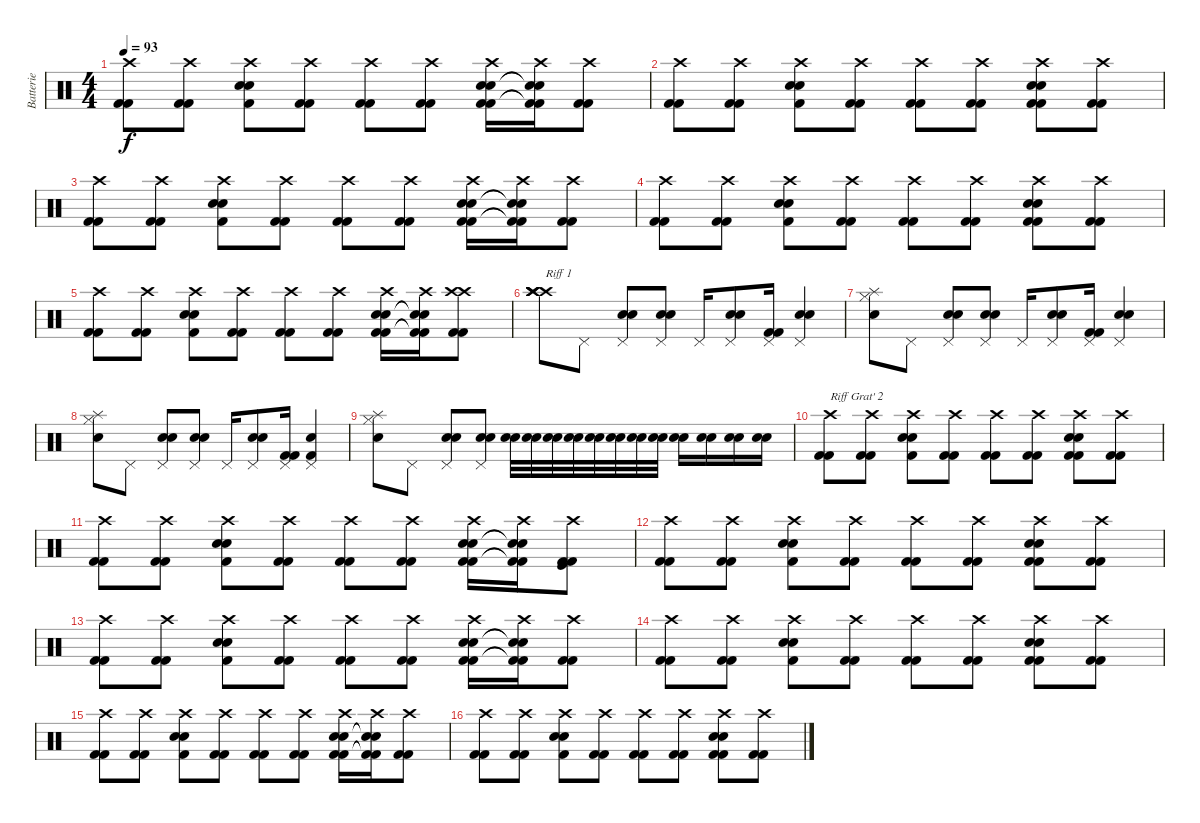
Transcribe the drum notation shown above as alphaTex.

\track ("Batterie" "Batterie") {instrument percussion}
\staff {score}
\articulation defaults
\ts (4 4)
\tempo 93
\clef neutral
\ks c
("Crash high (hit)" "Kick (hit) 2" "Kick (hit) 2").8{dy f} ("Crash high (hit)" "Kick (hit) 2" "Kick (hit) 2").8 ("Crash high (hit)" "Snare (hit) 2" "Snare (hit) 2" "Kick (hit) 2").8 ("Crash high (hit)" "Kick (hit) 2" "Kick (hit) 2").8 ("Crash high (hit)" "Kick (hit) 2" "Kick (hit) 2").8 ("Crash high (hit)" "Kick (hit) 2" "Kick (hit) 2").8 ("Crash high (hit)" "Snare (hit) 2" "Snare (hit) 2" "Kick (hit) 2" "Kick (hit) 2").16 ("Crash high (hit)" "Snare (hit) 2"{t} "Snare (hit) 2"{t} "Kick (hit) 2"{t} "Kick (hit) 2"{t}).16 ("Crash high (hit)" "Kick (hit) 2" "Kick (hit) 2").8 |
("Crash high (hit)" "Kick (hit) 2" "Kick (hit) 2").8 ("Crash high (hit)" "Kick (hit) 2" "Kick (hit) 2").8 ("Crash high (hit)" "Snare (hit) 2" "Snare (hit) 2" "Kick (hit) 2").8 ("Crash high (hit)" "Kick (hit) 2" "Kick (hit) 2").8 ("Crash high (hit)" "Kick (hit) 2" "Kick (hit) 2").8 ("Crash high (hit)" "Kick (hit) 2" "Kick (hit) 2").8 ("Crash high (hit)" "Snare (hit) 2" "Snare (hit) 2" "Kick (hit) 2" "Kick (hit) 2").8 ("Crash high (hit)" "Kick (hit) 2" "Kick (hit) 2").8 |
("Crash high (hit)" "Kick (hit) 2" "Kick (hit) 2").8 ("Crash high (hit)" "Kick (hit) 2" "Kick (hit) 2").8 ("Crash high (hit)" "Snare (hit) 2" "Snare (hit) 2" "Kick (hit) 2").8 ("Crash high (hit)" "Kick (hit) 2" "Kick (hit) 2").8 ("Crash high (hit)" "Kick (hit) 2" "Kick (hit) 2").8 ("Crash high (hit)" "Kick (hit) 2" "Kick (hit) 2").8 ("Crash high (hit)" "Snare (hit) 2" "Snare (hit) 2" "Kick (hit) 2" "Kick (hit) 2").16 ("Crash high (hit)" "Snare (hit) 2"{t} "Snare (hit) 2"{t} "Kick (hit) 2"{t} "Kick (hit) 2"{t}).16 ("Crash high (hit)" "Kick (hit) 2" "Kick (hit) 2").8 |
("Crash high (hit)" "Kick (hit) 2" "Kick (hit) 2").8 ("Crash high (hit)" "Kick (hit) 2" "Kick (hit) 2").8 ("Crash high (hit)" "Snare (hit) 2" "Snare (hit) 2" "Kick (hit) 2").8 ("Crash high (hit)" "Kick (hit) 2" "Kick (hit) 2").8 ("Crash high (hit)" "Kick (hit) 2" "Kick (hit) 2").8 ("Crash high (hit)" "Kick (hit) 2" "Kick (hit) 2").8 ("Crash high (hit)" "Snare (hit) 2" "Snare (hit) 2" "Kick (hit) 2" "Kick (hit) 2").8 ("Crash high (hit)" "Kick (hit) 2" "Kick (hit) 2").8 |
("Crash high (hit)" "Kick (hit) 2" "Kick (hit) 2").8 ("Crash high (hit)" "Kick (hit) 2" "Kick (hit) 2").8 ("Crash high (hit)" "Snare (hit) 2" "Snare (hit) 2" "Kick (hit) 2").8 ("Crash high (hit)" "Kick (hit) 2" "Kick (hit) 2").8 ("Crash high (hit)" "Kick (hit) 2" "Kick (hit) 2").8 ("Crash high (hit)" "Kick (hit) 2" "Kick (hit) 2").8 ("Crash high (hit)" "Snare (hit) 2" "Snare (hit) 2" "Kick (hit) 2" "Kick (hit) 2").16 ("Crash high (hit)" "Snare (hit) 2"{t} "Snare (hit) 2"{t} "Kick (hit) 2"{t} "Kick (hit) 2"{t}).16 ("Crash high (hit)" "Crash high (hit)" "Kick (hit) 2" "Kick (hit) 2").8 |
("Crash high (hit)" "Crash high (hit)" "Crash high (hit)" "Crash high (hit)").8{txt "Riff 1"} "Pedal Hi-Hat (hit)".8 ("Pedal Hi-Hat (hit)" "Snare (hit) 2" "Snare (hit) 2").8 ("Pedal Hi-Hat (hit)" "Snare (hit) 2" "Snare (hit) 2").8 "Pedal Hi-Hat (hit)".16 ("Pedal Hi-Hat (hit)" "Snare (hit) 2" "Snare (hit) 2").8 ("Pedal Hi-Hat (hit)" "Kick (hit) 2" "Kick (hit) 2").16 ("Pedal Hi-Hat (hit)" "Snare (hit) 2" "Snare (hit) 2").4 |
("Splash (hit)" "Snare (hit) 2" "Hi-Hat (closed)").8 "Pedal Hi-Hat (hit)".8 ("Pedal Hi-Hat (hit)" "Snare (hit) 2" "Snare (hit) 2").8 ("Pedal Hi-Hat (hit)" "Snare (hit) 2" "Snare (hit) 2").8 "Pedal Hi-Hat (hit)".16 ("Pedal Hi-Hat (hit)" "Snare (hit) 2" "Snare (hit) 2").8 ("Pedal Hi-Hat (hit)" "Kick (hit) 2" "Kick (hit) 2").16 ("Pedal Hi-Hat (hit)" "Snare (hit) 2" "Snare (hit) 2").4 |
("Splash (hit)" "Snare (hit) 2" "Hi-Hat (closed)").8 "Pedal Hi-Hat (hit)".8 ("Pedal Hi-Hat (hit)" "Snare (hit) 2" "Snare (hit) 2").8 ("Pedal Hi-Hat (hit)" "Snare (hit) 2" "Snare (hit) 2").8 "Pedal Hi-Hat (hit)".16 ("Pedal Hi-Hat (hit)" "Snare (hit) 2" "Snare (hit) 2").8 ("Pedal Hi-Hat (hit)" "Kick (hit) 2" "Kick (hit) 2").16 ("Pedal Hi-Hat (hit)" "Kick (hit) 2" "Snare (hit) 2").4 |
("Splash (hit)" "Snare (hit) 2" "Hi-Hat (closed)").8 "Pedal Hi-Hat (hit)".8 ("Pedal Hi-Hat (hit)" "Snare (hit) 2" "Snare (hit) 2").8 ("Pedal Hi-Hat (hit)" "Snare (hit) 2" "Snare (hit) 2").8 ("Snare (hit) 2" "Snare (hit) 2").32 ("Snare (hit) 2" "Snare (hit) 2").32 ("Snare (hit) 2" "Snare (hit) 2").32 ("Snare (hit) 2" "Snare (hit) 2").32 ("Snare (hit) 2" "Snare (hit) 2").32 ("Snare (hit) 2" "Snare (hit) 2").32 ("Snare (hit) 2" "Snare (hit) 2").32 ("Snare (hit) 2" "Snare (hit) 2").32 ("Snare (hit) 2" "Snare (hit) 2").16 ("Snare (hit) 2" "Snare (hit) 2").16 ("Snare (hit) 2" "Snare (hit) 2").16 ("Snare (hit) 2" "Snare (hit) 2").16 |
("Crash high (hit)" "Kick (hit) 2" "Kick (hit) 2").8{txt "Riff Grat' 2"} ("Crash high (hit)" "Kick (hit) 2" "Kick (hit) 2").8 ("Crash high (hit)" "Snare (hit) 2" "Snare (hit) 2" "Kick (hit) 2").8 ("Crash high (hit)" "Kick (hit) 2" "Kick (hit) 2").8 ("Crash high (hit)" "Kick (hit) 2" "Kick (hit) 2").8 ("Crash high (hit)" "Kick (hit) 2" "Kick (hit) 2").8 ("Crash high (hit)" "Snare (hit) 2" "Snare (hit) 2" "Kick (hit) 2" "Kick (hit) 2").8 ("Crash high (hit)" "Kick (hit) 2" "Kick (hit) 2").8 |
("Crash high (hit)" "Kick (hit) 2" "Kick (hit) 2").8 ("Crash high (hit)" "Kick (hit) 2" "Kick (hit) 2").8 ("Crash high (hit)" "Snare (hit) 2" "Snare (hit) 2" "Kick (hit) 2").8 ("Crash high (hit)" "Kick (hit) 2" "Kick (hit) 2").8 ("Crash high (hit)" "Kick (hit) 2" "Kick (hit) 2").8 ("Crash high (hit)" "Kick (hit) 2" "Kick (hit) 2").8 ("Crash high (hit)" "Snare (hit) 2" "Snare (hit) 2" "Kick (hit) 2" "Kick (hit) 2").16 ("Crash high (hit)" "Snare (hit) 2"{t} "Snare (hit) 2"{t} "Kick (hit) 2"{t} "Kick (hit) 2"{t}).16 ("Crash high (hit)" "Kick (hit) 2" "Kick (hit) 2" "Kick (hit)").8 |
("Crash high (hit)" "Kick (hit) 2" "Kick (hit) 2").8 ("Crash high (hit)" "Kick (hit) 2" "Kick (hit) 2").8 ("Crash high (hit)" "Snare (hit) 2" "Snare (hit) 2" "Kick (hit) 2").8 ("Crash high (hit)" "Kick (hit) 2" "Kick (hit) 2").8 ("Crash high (hit)" "Kick (hit) 2" "Kick (hit) 2").8 ("Crash high (hit)" "Kick (hit) 2" "Kick (hit) 2").8 ("Crash high (hit)" "Snare (hit) 2" "Snare (hit) 2" "Kick (hit) 2" "Kick (hit) 2").8 ("Crash high (hit)" "Kick (hit) 2" "Kick (hit) 2").8 |
("Crash high (hit)" "Kick (hit) 2" "Kick (hit) 2").8 ("Crash high (hit)" "Kick (hit) 2" "Kick (hit) 2").8 ("Crash high (hit)" "Snare (hit) 2" "Snare (hit) 2" "Kick (hit) 2").8 ("Crash high (hit)" "Kick (hit) 2" "Kick (hit) 2").8 ("Crash high (hit)" "Kick (hit) 2" "Kick (hit) 2").8 ("Crash high (hit)" "Kick (hit) 2" "Kick (hit) 2").8 ("Crash high (hit)" "Snare (hit) 2" "Snare (hit) 2" "Kick (hit) 2" "Kick (hit) 2").16 ("Crash high (hit)" "Snare (hit) 2"{t} "Snare (hit) 2"{t} "Kick (hit) 2"{t} "Kick (hit) 2"{t}).16 ("Crash high (hit)" "Kick (hit) 2" "Kick (hit) 2").8 |
("Crash high (hit)" "Kick (hit) 2" "Kick (hit) 2").8 ("Crash high (hit)" "Kick (hit) 2" "Kick (hit) 2").8 ("Crash high (hit)" "Snare (hit) 2" "Snare (hit) 2" "Kick (hit) 2").8 ("Crash high (hit)" "Kick (hit) 2" "Kick (hit) 2").8 ("Crash high (hit)" "Kick (hit) 2" "Kick (hit) 2").8 ("Crash high (hit)" "Kick (hit) 2" "Kick (hit) 2").8 ("Crash high (hit)" "Snare (hit) 2" "Snare (hit) 2" "Kick (hit) 2" "Kick (hit) 2").8 ("Crash high (hit)" "Kick (hit) 2" "Kick (hit) 2").8 |
("Crash high (hit)" "Kick (hit) 2" "Kick (hit) 2").8 ("Crash high (hit)" "Kick (hit) 2" "Kick (hit) 2").8 ("Crash high (hit)" "Snare (hit) 2" "Snare (hit) 2" "Kick (hit) 2").8 ("Crash high (hit)" "Kick (hit) 2" "Kick (hit) 2").8 ("Crash high (hit)" "Kick (hit) 2" "Kick (hit) 2").8 ("Crash high (hit)" "Kick (hit) 2" "Kick (hit) 2").8 ("Crash high (hit)" "Snare (hit) 2" "Snare (hit) 2" "Kick (hit) 2" "Kick (hit) 2").16 ("Crash high (hit)" "Snare (hit) 2"{t} "Snare (hit) 2"{t} "Kick (hit) 2"{t} "Kick (hit) 2"{t}).16 ("Crash high (hit)" "Kick (hit) 2" "Kick (hit) 2").8 |
("Crash high (hit)" "Kick (hit) 2" "Kick (hit) 2").8 ("Crash high (hit)" "Kick (hit) 2" "Kick (hit) 2").8 ("Crash high (hit)" "Snare (hit) 2" "Snare (hit) 2" "Kick (hit) 2").8 ("Crash high (hit)" "Kick (hit) 2" "Kick (hit) 2").8 ("Crash high (hit)" "Kick (hit) 2" "Kick (hit) 2").8 ("Crash high (hit)" "Kick (hit) 2" "Kick (hit) 2").8 ("Crash high (hit)" "Snare (hit) 2" "Snare (hit) 2" "Kick (hit) 2" "Kick (hit) 2").8 ("Crash high (hit)" "Kick (hit) 2" "Kick (hit) 2").8
